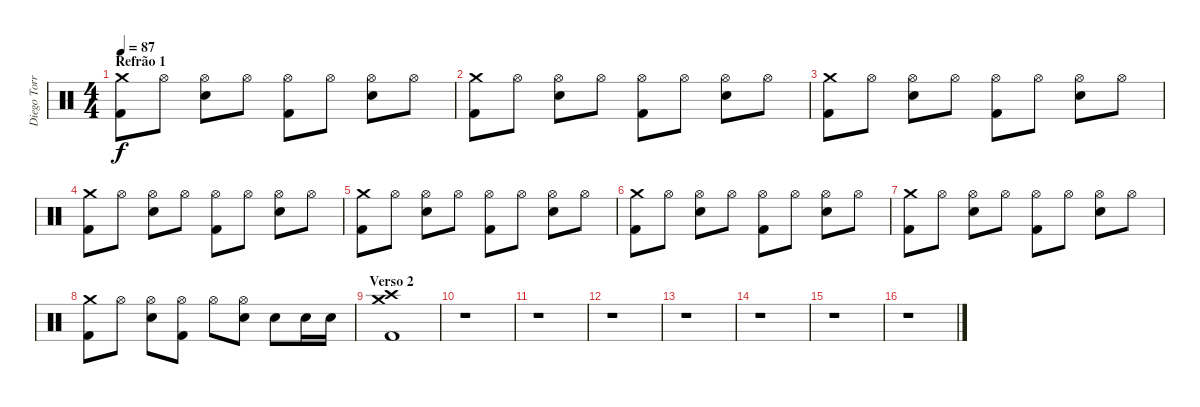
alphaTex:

\track ("Diego Torres [Bateria]" "Diego Torr") {instrument percussion}
\staff {score}
\articulation defaults
\ts (4 4)
\section ("" "Refrão 1")
\tempo 87
\clef neutral
\ks c
("Crash medium (hit)" "Kick (hit) 2").8{dy f} "Hi-Hat (open)".8 ("Hi-Hat (open)" "Electric Snare (hit)").8 "Hi-Hat (open)".8 ("Hi-Hat (open)" "Kick (hit) 2").8 "Hi-Hat (open)".8 ("Hi-Hat (open)" "Electric Snare (hit)").8 "Hi-Hat (open)".8 |
("Crash medium (hit)" "Kick (hit) 2").8 "Hi-Hat (open)".8 ("Hi-Hat (open)" "Electric Snare (hit)").8 "Hi-Hat (open)".8 ("Hi-Hat (open)" "Kick (hit) 2").8 "Hi-Hat (open)".8 ("Hi-Hat (open)" "Electric Snare (hit)").8 "Hi-Hat (open)".8 |
("Crash medium (hit)" "Kick (hit) 2").8 "Hi-Hat (open)".8 ("Hi-Hat (open)" "Electric Snare (hit)").8 "Hi-Hat (open)".8 ("Hi-Hat (open)" "Kick (hit) 2").8 "Hi-Hat (open)".8 ("Hi-Hat (open)" "Electric Snare (hit)").8 "Hi-Hat (open)".8 |
("Crash medium (hit)" "Kick (hit) 2").8 "Hi-Hat (open)".8 ("Hi-Hat (open)" "Electric Snare (hit)").8 "Hi-Hat (open)".8 ("Hi-Hat (open)" "Kick (hit) 2").8 "Hi-Hat (open)".8 ("Hi-Hat (open)" "Electric Snare (hit)").8 "Hi-Hat (open)".8 |
("Crash medium (hit)" "Kick (hit) 2").8 "Hi-Hat (open)".8 ("Hi-Hat (open)" "Electric Snare (hit)").8 "Hi-Hat (open)".8 ("Hi-Hat (open)" "Kick (hit) 2").8 "Hi-Hat (open)".8 ("Hi-Hat (open)" "Electric Snare (hit)").8 "Hi-Hat (open)".8 |
("Crash medium (hit)" "Kick (hit) 2").8 "Hi-Hat (open)".8 ("Hi-Hat (open)" "Electric Snare (hit)").8 "Hi-Hat (open)".8 ("Hi-Hat (open)" "Kick (hit) 2").8 "Hi-Hat (open)".8 ("Hi-Hat (open)" "Electric Snare (hit)").8 "Hi-Hat (open)".8 |
("Crash medium (hit)" "Kick (hit) 2").8 "Hi-Hat (open)".8 ("Hi-Hat (open)" "Electric Snare (hit)").8 "Hi-Hat (open)".8 ("Hi-Hat (open)" "Kick (hit) 2").8 "Hi-Hat (open)".8 ("Hi-Hat (open)" "Electric Snare (hit)").8 "Hi-Hat (open)".8 |
("Crash medium (hit)" "Kick (hit) 2").8 "Hi-Hat (open)".8 ("Hi-Hat (open)" "Electric Snare (hit)").8 ("Hi-Hat (open)" "Kick (hit) 2").8 "Hi-Hat (open)".8 ("Hi-Hat (open)" "Electric Snare (hit)").8 "Electric Snare (hit)".8 "Electric Snare (hit)".16 "Electric Snare (hit)".16 |
\section ("" "Verso 2")
("Crash medium (hit)" "Crash high (hit)" "Kick (hit) 2").1 |
r.1 |
r.1 |
r.1 |
r.1 |
r.1 |
r.1 |
r.1
